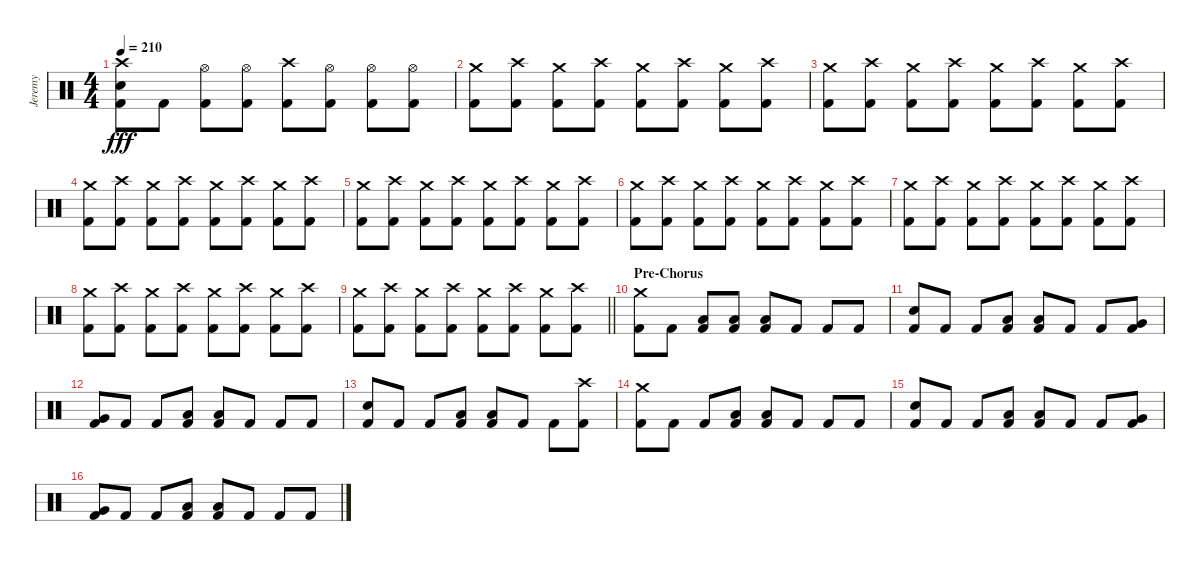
\track ("Jeremy" "Jeremy") {instrument percussion}
\staff {score}
\articulation defaults
\ts (4 4)
\tempo 210
\clef neutral
\ks c
("Crash high (hit)" "Electric Snare (hit)" "Kick (hit) 2").8{dy fff} "Kick (hit) 2".8 ("Hi-Hat (open)" "Kick (hit) 2").8 ("Hi-Hat (open)" "Kick (hit) 2").8 ("Crash high (hit)" "Kick (hit) 2").8 ("Hi-Hat (open)" "Kick (hit) 2").8 ("Hi-Hat (open)" "Kick (hit) 2").8 ("Hi-Hat (open)" "Kick (hit) 2").8 |
("Crash medium (hit)" "Kick (hit) 2").8 ("Crash high (hit)" "Kick (hit) 2").8 ("Crash medium (hit)" "Kick (hit) 2").8 ("Crash high (hit)" "Kick (hit) 2").8 ("Crash medium (hit)" "Kick (hit) 2").8 ("Crash high (hit)" "Kick (hit) 2").8 ("Crash medium (hit)" "Kick (hit) 2").8 ("Crash high (hit)" "Kick (hit) 2").8 |
("Crash medium (hit)" "Kick (hit) 2").8 ("Crash high (hit)" "Kick (hit) 2").8 ("Crash medium (hit)" "Kick (hit) 2").8 ("Crash high (hit)" "Kick (hit) 2").8 ("Crash medium (hit)" "Kick (hit) 2").8 ("Crash high (hit)" "Kick (hit) 2").8 ("Crash medium (hit)" "Kick (hit) 2").8 ("Crash high (hit)" "Kick (hit) 2").8 |
("Crash medium (hit)" "Kick (hit) 2").8 ("Crash high (hit)" "Kick (hit) 2").8 ("Crash medium (hit)" "Kick (hit) 2").8 ("Crash high (hit)" "Kick (hit) 2").8 ("Crash medium (hit)" "Kick (hit) 2").8 ("Crash high (hit)" "Kick (hit) 2").8 ("Crash medium (hit)" "Kick (hit) 2").8 ("Crash high (hit)" "Kick (hit) 2").8 |
("Crash medium (hit)" "Kick (hit) 2").8 ("Crash high (hit)" "Kick (hit) 2").8 ("Crash medium (hit)" "Kick (hit) 2").8 ("Crash high (hit)" "Kick (hit) 2").8 ("Crash medium (hit)" "Kick (hit) 2").8 ("Crash high (hit)" "Kick (hit) 2").8 ("Crash medium (hit)" "Kick (hit) 2").8 ("Crash high (hit)" "Kick (hit) 2").8 |
("Crash medium (hit)" "Kick (hit) 2").8 ("Crash high (hit)" "Kick (hit) 2").8 ("Crash medium (hit)" "Kick (hit) 2").8 ("Crash high (hit)" "Kick (hit) 2").8 ("Crash medium (hit)" "Kick (hit) 2").8 ("Crash high (hit)" "Kick (hit) 2").8 ("Crash medium (hit)" "Kick (hit) 2").8 ("Crash high (hit)" "Kick (hit) 2").8 |
("Crash medium (hit)" "Kick (hit) 2").8 ("Crash high (hit)" "Kick (hit) 2").8 ("Crash medium (hit)" "Kick (hit) 2").8 ("Crash high (hit)" "Kick (hit) 2").8 ("Crash medium (hit)" "Kick (hit) 2").8 ("Crash high (hit)" "Kick (hit) 2").8 ("Crash medium (hit)" "Kick (hit) 2").8 ("Crash high (hit)" "Kick (hit) 2").8 |
("Crash medium (hit)" "Kick (hit) 2").8 ("Crash high (hit)" "Kick (hit) 2").8 ("Crash medium (hit)" "Kick (hit) 2").8 ("Crash high (hit)" "Kick (hit) 2").8 ("Crash medium (hit)" "Kick (hit) 2").8 ("Crash high (hit)" "Kick (hit) 2").8 ("Crash medium (hit)" "Kick (hit) 2").8 ("Crash high (hit)" "Kick (hit) 2").8 |
\barLineRight lightlight
("Crash medium (hit)" "Kick (hit) 2").8 ("Crash high (hit)" "Kick (hit) 2").8 ("Crash medium (hit)" "Kick (hit) 2").8 ("Crash high (hit)" "Kick (hit) 2").8 ("Crash medium (hit)" "Kick (hit) 2").8 ("Crash high (hit)" "Kick (hit) 2").8 ("Crash medium (hit)" "Kick (hit) 2").8 ("Crash high (hit)" "Kick (hit) 2").8 |
\section ("" "Pre-Chorus")
("Crash medium (hit)" "Kick (hit) 2").8 "Kick (hit) 2".8 ("Low Floor Tom (hit)" "Kick (hit) 2").8 ("Low Floor Tom (hit)" "Kick (hit) 2").8 ("Low Floor Tom (hit)" "Kick (hit) 2").8 "Kick (hit) 2".8 "Kick (hit) 2".8 "Kick (hit) 2".8 |
("Electric Snare (hit)" "Kick (hit) 2").8 "Kick (hit) 2".8 "Kick (hit) 2".8 ("Low Tom (hit)" "Kick (hit) 2").8 ("Low Tom (hit)" "Kick (hit) 2").8 "Kick (hit) 2".8 "Kick (hit) 2".8 ("Very Low Tom (hit)" "Kick (hit) 2").8 |
("Very Low Tom (hit)" "Kick (hit) 2").8 "Kick (hit) 2".8 "Kick (hit) 2".8 ("Low Floor Tom (hit)" "Kick (hit) 2").8 ("Low Floor Tom (hit)" "Kick (hit) 2").8 "Kick (hit) 2".8 "Kick (hit) 2".8 "Kick (hit) 2".8 |
("Electric Snare (hit)" "Kick (hit) 2").8 "Kick (hit) 2".8 "Kick (hit) 2".8 ("Low Tom (hit)" "Kick (hit) 2").8 ("Low Tom (hit)" "Kick (hit) 2").8 "Kick (hit) 2".8 "Kick (hit) 2".8 ("Crash high (hit)" "Kick (hit) 2").8 |
("Crash medium (hit)" "Kick (hit) 2").8 "Kick (hit) 2".8 "Kick (hit) 2".8 ("Low Floor Tom (hit)" "Kick (hit) 2").8 ("Low Floor Tom (hit)" "Kick (hit) 2").8 "Kick (hit) 2".8 "Kick (hit) 2".8 "Kick (hit) 2".8 |
("Electric Snare (hit)" "Kick (hit) 2").8 "Kick (hit) 2".8 "Kick (hit) 2".8 ("Low Tom (hit)" "Kick (hit) 2").8 ("Low Tom (hit)" "Kick (hit) 2").8 "Kick (hit) 2".8 "Kick (hit) 2".8 ("Very Low Tom (hit)" "Kick (hit) 2").8 |
("Very Low Tom (hit)" "Kick (hit) 2").8 "Kick (hit) 2".8 "Kick (hit) 2".8 ("Low Floor Tom (hit)" "Kick (hit) 2").8 ("Low Floor Tom (hit)" "Kick (hit) 2").8 "Kick (hit) 2".8 "Kick (hit) 2".8 "Kick (hit) 2".8
